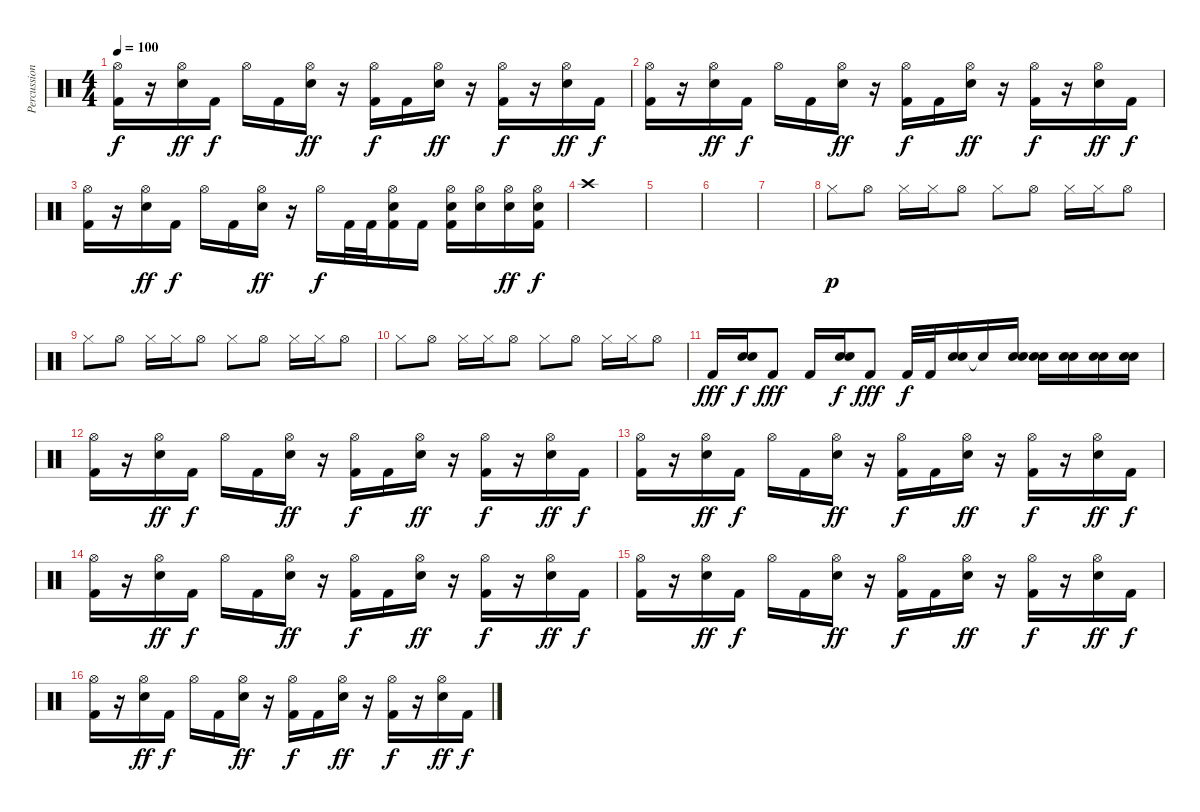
\track ("Percussion" "Percussion") {instrument percussion}
\staff {score}
\articulation defaults
\ts (4 4)
\tempo 100
\clef neutral
\ks c
("Hi-Hat (open)" "Kick (hit) 2").16{dy f} r.16 ("Hi-Hat (open)" "Electric Snare (hit)").16{dy ff} "Kick (hit) 2".16{dy f} "Hi-Hat (open)".16 "Kick (hit) 2".16 ("Hi-Hat (open)" "Electric Snare (hit)").16{dy ff} r.16 ("Hi-Hat (open)" "Kick (hit) 2").16{dy f} "Kick (hit) 2".16 ("Hi-Hat (open)" "Electric Snare (hit)").16{dy ff} r.16 ("Hi-Hat (open)" "Kick (hit) 2").16{dy f} r.16 ("Hi-Hat (open)" "Electric Snare (hit)").16{dy ff} "Kick (hit) 2".16{dy f} |
("Hi-Hat (open)" "Kick (hit) 2").16 r.16 ("Hi-Hat (open)" "Electric Snare (hit)").16{dy ff} "Kick (hit) 2".16{dy f} "Hi-Hat (open)".16 "Kick (hit) 2".16 ("Hi-Hat (open)" "Electric Snare (hit)").16{dy ff} r.16 ("Hi-Hat (open)" "Kick (hit) 2").16{dy f} "Kick (hit) 2".16 ("Hi-Hat (open)" "Electric Snare (hit)").16{dy ff} r.16 ("Hi-Hat (open)" "Kick (hit) 2").16{dy f} r.16 ("Hi-Hat (open)" "Electric Snare (hit)").16{dy ff} "Kick (hit) 2".16{dy f} |
("Hi-Hat (open)" "Kick (hit) 2").16 r.16 ("Hi-Hat (open)" "Electric Snare (hit)").16{dy ff} "Kick (hit) 2".16{dy f} "Hi-Hat (open)".16 "Kick (hit) 2".16 ("Hi-Hat (open)" "Electric Snare (hit)").16{dy ff} r.16 "Hi-Hat (open)".16{dy f} "Kick (hit) 2".32 "Kick (hit) 2".32 ("Hi-Hat (open)" "Electric Snare (hit)" "Kick (hit) 2").16 "Kick (hit) 2".16 ("Hi-Hat (open)" "Electric Snare (hit)" "Kick (hit) 2").16 ("Hi-Hat (open)" "Electric Snare (hit)").16 ("Hi-Hat (open)" "Electric Snare (hit)").16{dy ff} ("Hi-Hat (open)" "Electric Snare (hit)" "Kick (hit) 2").16{dy f} |
"Crash high (hit)".1 |
|
|
|
"Hi-Hat (closed)".8{dy p} "Hi-Hat (open)".8 "Hi-Hat (closed)".16 "Hi-Hat (closed)".16 "Hi-Hat (open)".8 "Hi-Hat (closed)".8 "Hi-Hat (open)".8 "Hi-Hat (closed)".16 "Hi-Hat (closed)".16 "Hi-Hat (open)".8 |
"Hi-Hat (closed)".8 "Hi-Hat (open)".8 "Hi-Hat (closed)".16 "Hi-Hat (closed)".16 "Hi-Hat (open)".8 "Hi-Hat (closed)".8 "Hi-Hat (open)".8 "Hi-Hat (closed)".16 "Hi-Hat (closed)".16 "Hi-Hat (open)".8 |
"Hi-Hat (closed)".8 "Hi-Hat (open)".8 "Hi-Hat (closed)".16 "Hi-Hat (closed)".16 "Hi-Hat (open)".8 "Hi-Hat (closed)".8 "Hi-Hat (open)".8 "Hi-Hat (closed)".16 "Hi-Hat (closed)".16 "Hi-Hat (open)".8 |
"Kick (hit) 2".16{dy fff} ("Electric Snare (hit)" "Snare (hit) 2").16{dy f} "Kick (hit) 2".8{dy fff} "Kick (hit) 2".16 ("Electric Snare (hit)" "Snare (hit) 2").16{dy f} "Kick (hit) 2".8{dy fff} "Kick (hit) 2".32{dy f} "Kick (hit) 2".32 ("Electric Snare (hit)" "Snare (hit) 2").16 "Snare (hit) 2"{t}.16 ("Electric Snare (hit)" "Snare (hit) 2").16 ("Electric Snare (hit)" "Snare (hit) 2").16 ("Electric Snare (hit)" "Snare (hit) 2").16 ("Electric Snare (hit)" "Snare (hit) 2").16 ("Electric Snare (hit)" "Snare (hit) 2").16 |
("Hi-Hat (open)" "Kick (hit) 2").16 r.16 ("Hi-Hat (open)" "Electric Snare (hit)").16{dy ff} "Kick (hit) 2".16{dy f} "Hi-Hat (open)".16 "Kick (hit) 2".16 ("Hi-Hat (open)" "Electric Snare (hit)").16{dy ff} r.16 ("Hi-Hat (open)" "Kick (hit) 2").16{dy f} "Kick (hit) 2".16 ("Hi-Hat (open)" "Electric Snare (hit)").16{dy ff} r.16 ("Hi-Hat (open)" "Kick (hit) 2").16{dy f} r.16 ("Hi-Hat (open)" "Electric Snare (hit)").16{dy ff} "Kick (hit) 2".16{dy f} |
("Hi-Hat (open)" "Kick (hit) 2").16 r.16 ("Hi-Hat (open)" "Electric Snare (hit)").16{dy ff} "Kick (hit) 2".16{dy f} "Hi-Hat (open)".16 "Kick (hit) 2".16 ("Hi-Hat (open)" "Electric Snare (hit)").16{dy ff} r.16 ("Hi-Hat (open)" "Kick (hit) 2").16{dy f} "Kick (hit) 2".16 ("Hi-Hat (open)" "Electric Snare (hit)").16{dy ff} r.16 ("Hi-Hat (open)" "Kick (hit) 2").16{dy f} r.16 ("Hi-Hat (open)" "Electric Snare (hit)").16{dy ff} "Kick (hit) 2".16{dy f} |
("Hi-Hat (open)" "Kick (hit) 2").16 r.16 ("Hi-Hat (open)" "Electric Snare (hit)").16{dy ff} "Kick (hit) 2".16{dy f} "Hi-Hat (open)".16 "Kick (hit) 2".16 ("Hi-Hat (open)" "Electric Snare (hit)").16{dy ff} r.16 ("Hi-Hat (open)" "Kick (hit) 2").16{dy f} "Kick (hit) 2".16 ("Hi-Hat (open)" "Electric Snare (hit)").16{dy ff} r.16 ("Hi-Hat (open)" "Kick (hit) 2").16{dy f} r.16 ("Hi-Hat (open)" "Electric Snare (hit)").16{dy ff} "Kick (hit) 2".16{dy f} |
("Hi-Hat (open)" "Kick (hit) 2").16 r.16 ("Hi-Hat (open)" "Electric Snare (hit)").16{dy ff} "Kick (hit) 2".16{dy f} "Hi-Hat (open)".16 "Kick (hit) 2".16 ("Hi-Hat (open)" "Electric Snare (hit)").16{dy ff} r.16 ("Hi-Hat (open)" "Kick (hit) 2").16{dy f} "Kick (hit) 2".16 ("Hi-Hat (open)" "Electric Snare (hit)").16{dy ff} r.16 ("Hi-Hat (open)" "Kick (hit) 2").16{dy f} r.16 ("Hi-Hat (open)" "Electric Snare (hit)").16{dy ff} "Kick (hit) 2".16{dy f} |
("Hi-Hat (open)" "Kick (hit) 2").16 r.16 ("Hi-Hat (open)" "Electric Snare (hit)").16{dy ff} "Kick (hit) 2".16{dy f} "Hi-Hat (open)".16 "Kick (hit) 2".16 ("Hi-Hat (open)" "Electric Snare (hit)").16{dy ff} r.16 ("Hi-Hat (open)" "Kick (hit) 2").16{dy f} "Kick (hit) 2".16 ("Hi-Hat (open)" "Electric Snare (hit)").16{dy ff} r.16 ("Hi-Hat (open)" "Kick (hit) 2").16{dy f} r.16 ("Hi-Hat (open)" "Electric Snare (hit)").16{dy ff} "Kick (hit) 2".16{dy f}
